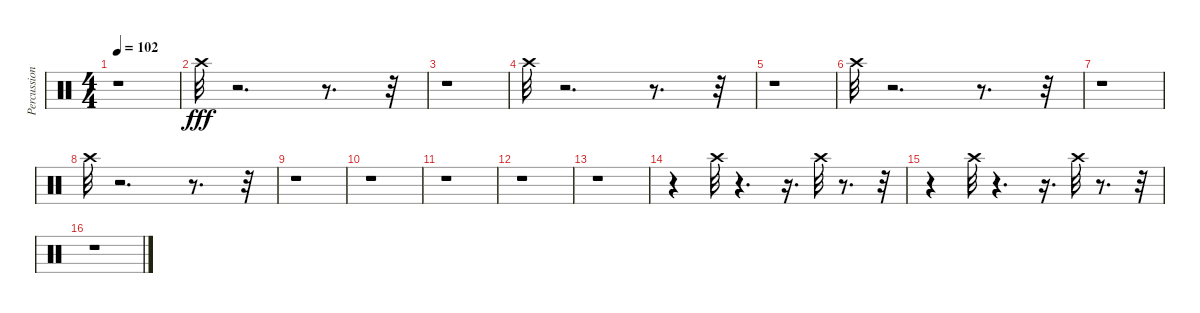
\track ("Percussion" "Percussion") {instrument percussion}
\staff {score}
\articulation defaults
\ts (4 4)
\tempo 102
\clef neutral
\ks c
r.1{dy fff} |
"Crash high (hit)".32 r.2{d} r.8{d} r.32 |
r.1 |
"Crash high (hit)".32 r.2{d} r.8{d} r.32 |
r.1 |
"Crash high (hit)".32 r.2{d} r.8{d} r.32 |
r.1 |
"Crash high (hit)".32 r.2{d} r.8{d} r.32 |
r.1 |
r.1 |
r.1 |
r.1 |
r.1 |
r.4 "Crash high (hit)".32 r.4{d} r.16{d} "Crash high (hit)".32 r.8{d} r.32 |
r.4 "Crash high (hit)".32 r.4{d} r.16{d} "Crash high (hit)".32 r.8{d} r.32 |
r.1
